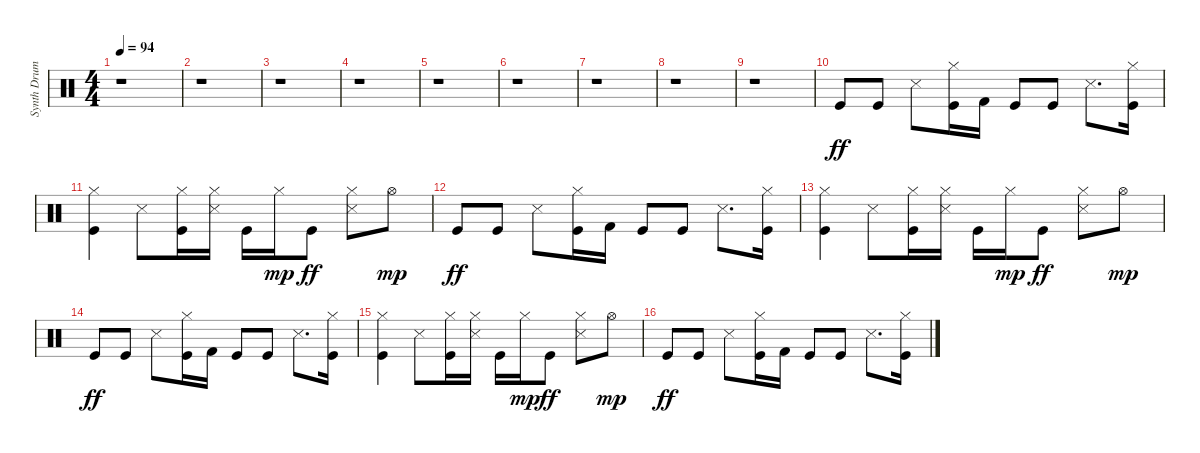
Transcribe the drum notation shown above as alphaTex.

\track ("Synth Drums" "Synth Drum") {instrument percussion}
\staff {score}
\articulation defaults
\ts (4 4)
\tempo 94
\clef neutral
\ks c
r.1{dy pp} |
r.1 |
r.1 |
r.1 |
r.1 |
r.1 |
r.1 |
r.1 |
r.1 |
"Kick (hit)".8{dy ff} "Kick (hit)".8 "Snare (side stick) 3".8 ("Hi-Hat (closed)" "Kick (hit)").16 "Kick (hit) 2".16 "Kick (hit)".8 "Kick (hit)".8 "Snare (side stick) 3".8{d} ("Hi-Hat (closed)" "Kick (hit)").16 |
("Hi-Hat (closed)" "Kick (hit)").4 "Snare (side stick) 3".8 ("Hi-Hat (closed)" "Kick (hit)").16 ("Hi-Hat (closed)" "Snare (side stick) 3").16 "Kick (hit)".16 "Hi-Hat (closed)".16{dy mp} "Kick (hit)".8{dy ff} ("Hi-Hat (closed)" "Snare (side stick) 3").8 "Hi-Hat (open)".8{dy mp} |
"Kick (hit)".8{dy ff} "Kick (hit)".8 "Snare (side stick) 3".8 ("Hi-Hat (closed)" "Kick (hit)").16 "Kick (hit) 2".16 "Kick (hit)".8 "Kick (hit)".8 "Snare (side stick) 3".8{d} ("Hi-Hat (closed)" "Kick (hit)").16 |
("Hi-Hat (closed)" "Kick (hit)").4 "Snare (side stick) 3".8 ("Hi-Hat (closed)" "Kick (hit)").16 ("Hi-Hat (closed)" "Snare (side stick) 3").16 "Kick (hit)".16 "Hi-Hat (closed)".16{dy mp} "Kick (hit)".8{dy ff} ("Hi-Hat (closed)" "Snare (side stick) 3").8 "Hi-Hat (open)".8{dy mp} |
"Kick (hit)".8{dy ff} "Kick (hit)".8 "Snare (side stick) 3".8 ("Hi-Hat (closed)" "Kick (hit)").16 "Kick (hit) 2".16 "Kick (hit)".8 "Kick (hit)".8 "Snare (side stick) 3".8{d} ("Hi-Hat (closed)" "Kick (hit)").16 |
("Hi-Hat (closed)" "Kick (hit)").4 "Snare (side stick) 3".8 ("Hi-Hat (closed)" "Kick (hit)").16 ("Hi-Hat (closed)" "Snare (side stick) 3").16 "Kick (hit)".16 "Hi-Hat (closed)".16{dy mp} "Kick (hit)".8{dy ff} ("Hi-Hat (closed)" "Snare (side stick) 3").8 "Hi-Hat (open)".8{dy mp} |
"Kick (hit)".8{dy ff volume 12} "Kick (hit)".8{volume 9} "Snare (side stick) 3".8{volume 12} ("Hi-Hat (closed)" "Kick (hit)").16{volume 8} "Kick (hit) 2".16{volume 12} "Kick (hit)".8{volume 12} "Kick (hit)".8{volume 11} "Snare (side stick) 3".8{d volume 11} ("Hi-Hat (closed)" "Kick (hit)").16{volume 11}
